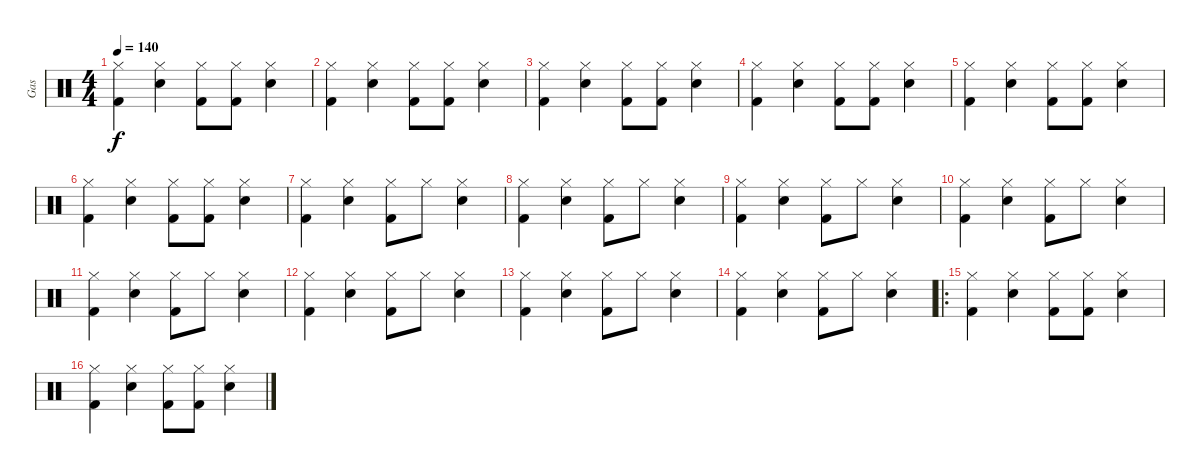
\track ("Gas" "Gas") {instrument percussion}
\staff {score}
\articulation defaults
\ts (4 4)
\tempo 140
\clef neutral
\ks c
("Hi-Hat (closed)" "Kick (hit) 2").4{dy f} ("Hi-Hat (closed)" "Electric Snare (hit)").4 ("Hi-Hat (closed)" "Kick (hit) 2").8 ("Hi-Hat (closed)" "Kick (hit) 2").8 ("Hi-Hat (closed)" "Electric Snare (hit)").4 |
("Hi-Hat (closed)" "Kick (hit) 2").4 ("Hi-Hat (closed)" "Electric Snare (hit)").4 ("Hi-Hat (closed)" "Kick (hit) 2").8 ("Hi-Hat (closed)" "Kick (hit) 2").8 ("Hi-Hat (closed)" "Electric Snare (hit)").4 |
("Hi-Hat (closed)" "Kick (hit) 2").4 ("Hi-Hat (closed)" "Electric Snare (hit)").4 ("Hi-Hat (closed)" "Kick (hit) 2").8 ("Hi-Hat (closed)" "Kick (hit) 2").8 ("Hi-Hat (closed)" "Electric Snare (hit)").4 |
("Hi-Hat (closed)" "Kick (hit) 2").4 ("Hi-Hat (closed)" "Electric Snare (hit)").4 ("Hi-Hat (closed)" "Kick (hit) 2").8 ("Hi-Hat (closed)" "Kick (hit) 2").8 ("Hi-Hat (closed)" "Electric Snare (hit)").4 |
("Hi-Hat (closed)" "Kick (hit) 2").4 ("Hi-Hat (closed)" "Electric Snare (hit)").4 ("Hi-Hat (closed)" "Kick (hit) 2").8 ("Hi-Hat (closed)" "Kick (hit) 2").8 ("Hi-Hat (closed)" "Electric Snare (hit)").4 |
("Hi-Hat (closed)" "Kick (hit) 2").4 ("Hi-Hat (closed)" "Electric Snare (hit)").4 ("Hi-Hat (closed)" "Kick (hit) 2").8 ("Hi-Hat (closed)" "Kick (hit) 2").8 ("Hi-Hat (closed)" "Electric Snare (hit)").4 |
("Hi-Hat (closed)" "Kick (hit) 2").4 ("Hi-Hat (closed)" "Electric Snare (hit)").4 ("Hi-Hat (closed)" "Kick (hit) 2").8 "Hi-Hat (closed)".8 ("Hi-Hat (closed)" "Electric Snare (hit)").4 |
("Hi-Hat (closed)" "Kick (hit) 2").4 ("Hi-Hat (closed)" "Electric Snare (hit)").4 ("Hi-Hat (closed)" "Kick (hit) 2").8 "Hi-Hat (closed)".8 ("Hi-Hat (closed)" "Electric Snare (hit)").4 |
("Hi-Hat (closed)" "Kick (hit) 2").4 ("Hi-Hat (closed)" "Electric Snare (hit)").4 ("Hi-Hat (closed)" "Kick (hit) 2").8 "Hi-Hat (closed)".8 ("Hi-Hat (closed)" "Electric Snare (hit)").4 |
("Hi-Hat (closed)" "Kick (hit) 2").4 ("Hi-Hat (closed)" "Electric Snare (hit)").4 ("Hi-Hat (closed)" "Kick (hit) 2").8 "Hi-Hat (closed)".8 ("Hi-Hat (closed)" "Electric Snare (hit)").4 |
("Hi-Hat (closed)" "Kick (hit) 2").4 ("Hi-Hat (closed)" "Electric Snare (hit)").4 ("Hi-Hat (closed)" "Kick (hit) 2").8 "Hi-Hat (closed)".8 ("Hi-Hat (closed)" "Electric Snare (hit)").4 |
("Hi-Hat (closed)" "Kick (hit) 2").4 ("Hi-Hat (closed)" "Electric Snare (hit)").4 ("Hi-Hat (closed)" "Kick (hit) 2").8 "Hi-Hat (closed)".8 ("Hi-Hat (closed)" "Electric Snare (hit)").4 |
("Hi-Hat (closed)" "Kick (hit) 2").4 ("Hi-Hat (closed)" "Electric Snare (hit)").4 ("Hi-Hat (closed)" "Kick (hit) 2").8 "Hi-Hat (closed)".8 ("Hi-Hat (closed)" "Electric Snare (hit)").4 |
("Hi-Hat (closed)" "Kick (hit) 2").4 ("Hi-Hat (closed)" "Electric Snare (hit)").4 ("Hi-Hat (closed)" "Kick (hit) 2").8 "Hi-Hat (closed)".8 ("Hi-Hat (closed)" "Electric Snare (hit)").4 |
\ro
("Hi-Hat (closed)" "Kick (hit) 2").4 ("Hi-Hat (closed)" "Electric Snare (hit)").4 ("Hi-Hat (closed)" "Kick (hit) 2").8 ("Hi-Hat (closed)" "Kick (hit) 2").8 ("Hi-Hat (closed)" "Electric Snare (hit)").4 |
("Hi-Hat (closed)" "Kick (hit) 2").4 ("Hi-Hat (closed)" "Electric Snare (hit)").4 ("Hi-Hat (closed)" "Kick (hit) 2").8 ("Hi-Hat (closed)" "Kick (hit) 2").8 ("Hi-Hat (closed)" "Electric Snare (hit)").4
